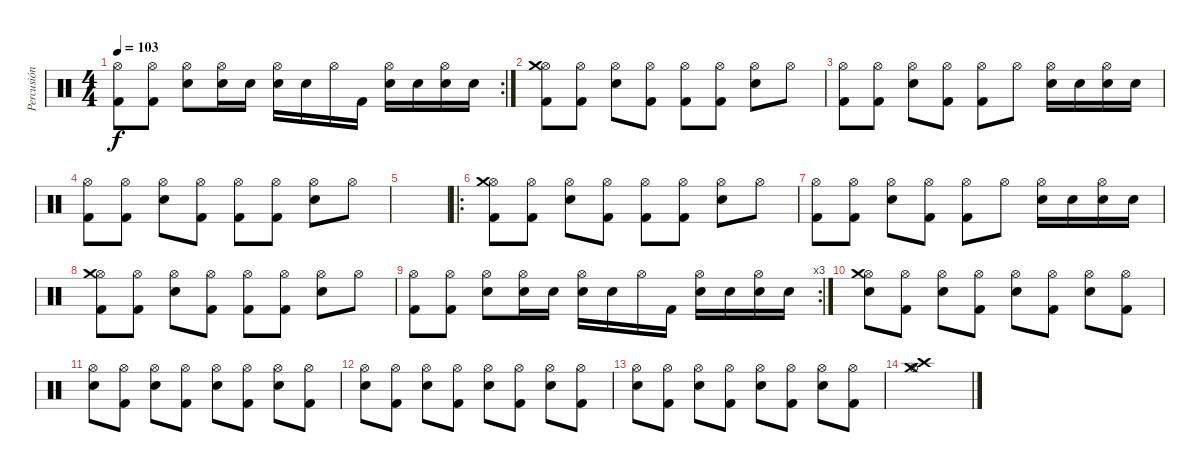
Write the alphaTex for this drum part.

\track ("Percusión" "Percusión") {instrument percussion}
\staff {score}
\articulation defaults
\rc 2
\ts (4 4)
\tempo 103
\clef neutral
\ks c
("Hi-Hat (open)" "Kick (hit) 2").8{dy f} ("Hi-Hat (open)" "Kick (hit) 2").8 ("Hi-Hat (open)" "Electric Snare (hit)").8 ("Hi-Hat (open)" "Electric Snare (hit)").16 "Electric Snare (hit)".16 ("Hi-Hat (open)" "Electric Snare (hit)").16 "Electric Snare (hit)".16 "Hi-Hat (open)".16 "Kick (hit) 2".16 ("Hi-Hat (open)" "Electric Snare (hit)").16 "Electric Snare (hit)".16 ("Hi-Hat (open)" "Electric Snare (hit)").16 "Electric Snare (hit)".16 |
("Hi-Hat (open)" "Kick (hit) 2" "Crash medium (hit)").8 ("Hi-Hat (open)" "Kick (hit) 2").8 ("Hi-Hat (open)" "Electric Snare (hit)").8 ("Hi-Hat (open)" "Kick (hit) 2").8 ("Hi-Hat (open)" "Kick (hit) 2").8 ("Hi-Hat (open)" "Kick (hit) 2").8 ("Hi-Hat (open)" "Electric Snare (hit)").8 "Hi-Hat (open)".8 |
("Hi-Hat (open)" "Kick (hit) 2").8 ("Hi-Hat (open)" "Kick (hit) 2").8 ("Hi-Hat (open)" "Electric Snare (hit)").8 ("Hi-Hat (open)" "Kick (hit) 2").8 ("Hi-Hat (open)" "Kick (hit) 2").8 "Hi-Hat (open)".8 ("Hi-Hat (open)" "Electric Snare (hit)").16 "Electric Snare (hit)".16 ("Hi-Hat (open)" "Electric Snare (hit)").16 "Electric Snare (hit)".16 |
("Hi-Hat (open)" "Kick (hit) 2").8 ("Hi-Hat (open)" "Kick (hit) 2").8 ("Hi-Hat (open)" "Electric Snare (hit)").8 ("Hi-Hat (open)" "Kick (hit) 2").8 ("Hi-Hat (open)" "Kick (hit) 2").8 ("Hi-Hat (open)" "Kick (hit) 2").8 ("Hi-Hat (open)" "Electric Snare (hit)").8 "Hi-Hat (open)".8 |
|
\ro
("Hi-Hat (open)" "Kick (hit) 2" "Crash medium (hit)").8 ("Hi-Hat (open)" "Kick (hit) 2").8 ("Hi-Hat (open)" "Electric Snare (hit)").8 ("Hi-Hat (open)" "Kick (hit) 2").8 ("Hi-Hat (open)" "Kick (hit) 2").8 ("Hi-Hat (open)" "Kick (hit) 2").8 ("Hi-Hat (open)" "Electric Snare (hit)").8 "Hi-Hat (open)".8 |
("Hi-Hat (open)" "Kick (hit) 2").8 ("Hi-Hat (open)" "Kick (hit) 2").8 ("Hi-Hat (open)" "Electric Snare (hit)").8 ("Hi-Hat (open)" "Kick (hit) 2").8 ("Hi-Hat (open)" "Kick (hit) 2").8 "Hi-Hat (open)".8 ("Hi-Hat (open)" "Electric Snare (hit)").16 "Electric Snare (hit)".16 ("Hi-Hat (open)" "Electric Snare (hit)").16 "Electric Snare (hit)".16 |
("Hi-Hat (open)" "Kick (hit) 2" "Crash medium (hit)").8 ("Hi-Hat (open)" "Kick (hit) 2").8 ("Hi-Hat (open)" "Electric Snare (hit)").8 ("Hi-Hat (open)" "Kick (hit) 2").8 ("Hi-Hat (open)" "Kick (hit) 2").8 ("Hi-Hat (open)" "Kick (hit) 2").8 ("Hi-Hat (open)" "Electric Snare (hit)").8 "Hi-Hat (open)".8 |
\rc 3
("Hi-Hat (open)" "Kick (hit) 2").8 ("Hi-Hat (open)" "Kick (hit) 2").8 ("Hi-Hat (open)" "Electric Snare (hit)").8 ("Hi-Hat (open)" "Electric Snare (hit)").16 "Electric Snare (hit)".16 ("Hi-Hat (open)" "Electric Snare (hit)").16 "Electric Snare (hit)".16 "Hi-Hat (open)".16 "Kick (hit) 2".16 ("Hi-Hat (open)" "Electric Snare (hit)").16 "Electric Snare (hit)".16 ("Hi-Hat (open)" "Electric Snare (hit)").16 "Electric Snare (hit)".16 |
("Hi-Hat (open)" "Electric Snare (hit)" "Crash medium (hit)").8 ("Hi-Hat (open)" "Kick (hit) 2").8 ("Hi-Hat (open)" "Electric Snare (hit)").8 ("Hi-Hat (open)" "Kick (hit) 2").8 ("Hi-Hat (open)" "Electric Snare (hit)").8 ("Hi-Hat (open)" "Kick (hit) 2").8 ("Hi-Hat (open)" "Electric Snare (hit)").8 ("Hi-Hat (open)" "Kick (hit) 2").8 |
("Hi-Hat (open)" "Electric Snare (hit)").8 ("Hi-Hat (open)" "Kick (hit) 2").8 ("Hi-Hat (open)" "Electric Snare (hit)").8 ("Hi-Hat (open)" "Kick (hit) 2").8 ("Hi-Hat (open)" "Electric Snare (hit)").8 ("Hi-Hat (open)" "Kick (hit) 2").8 ("Hi-Hat (open)" "Electric Snare (hit)").8 ("Hi-Hat (open)" "Kick (hit) 2").8 |
("Hi-Hat (open)" "Electric Snare (hit)").8 ("Hi-Hat (open)" "Kick (hit) 2").8 ("Hi-Hat (open)" "Electric Snare (hit)").8 ("Hi-Hat (open)" "Kick (hit) 2").8 ("Hi-Hat (open)" "Electric Snare (hit)").8 ("Hi-Hat (open)" "Kick (hit) 2").8 ("Hi-Hat (open)" "Electric Snare (hit)").8 ("Hi-Hat (open)" "Kick (hit) 2").8 |
("Hi-Hat (open)" "Electric Snare (hit)").8 ("Hi-Hat (open)" "Kick (hit) 2").8 ("Hi-Hat (open)" "Electric Snare (hit)").8 ("Hi-Hat (open)" "Kick (hit) 2").8 ("Hi-Hat (open)" "Electric Snare (hit)").8 ("Hi-Hat (open)" "Kick (hit) 2").8 ("Hi-Hat (open)" "Electric Snare (hit)").8 ("Hi-Hat (open)" "Kick (hit) 2").8 |
("Crash medium (hit)" "Crash high (hit)" "Hi-Hat (open)").1
